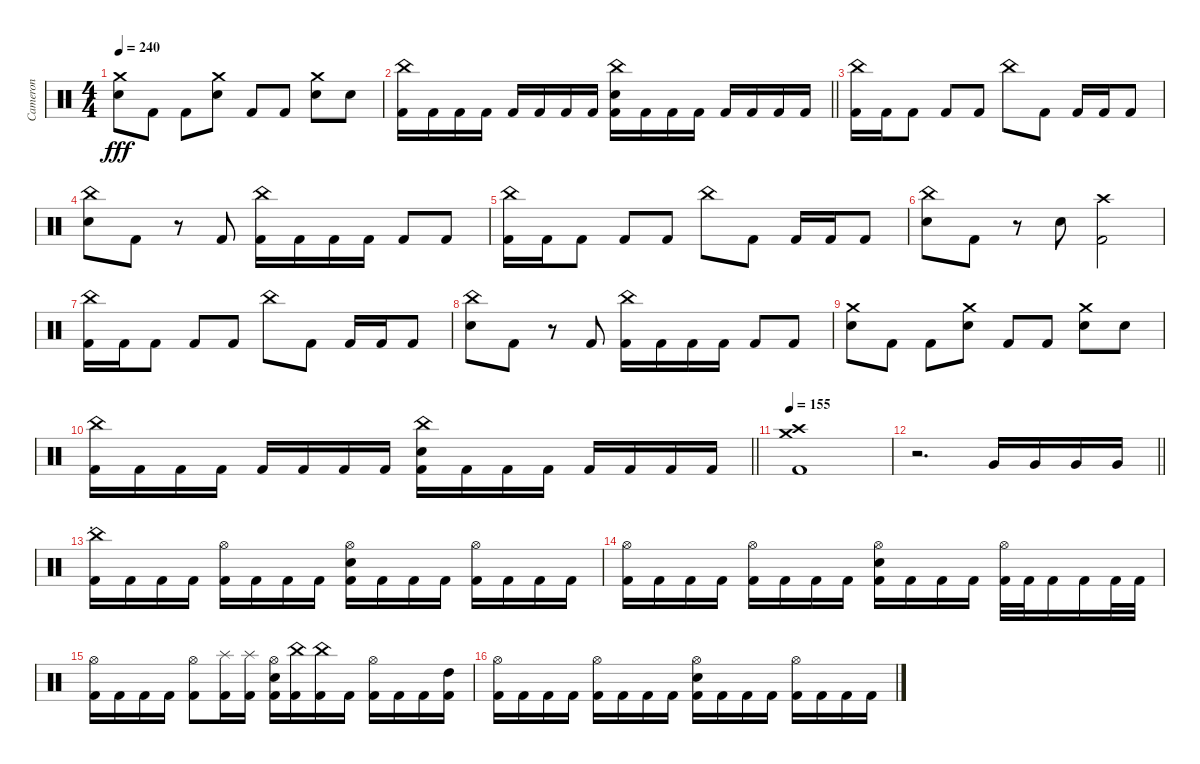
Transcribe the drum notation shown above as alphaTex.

\track ("Cameron" "Cameron") {instrument percussion}
\staff {score}
\articulation defaults
\ts (4 4)
\tempo 240
\clef neutral
\ks c
("Crash medium (hit)" "Electric Snare (hit)").8{dy fff} "Kick (hit) 2".8 "Kick (hit) 2".8 ("Crash medium (hit)" "Electric Snare (hit)").8 "Kick (hit) 2".8 "Kick (hit) 2".8 ("Crash medium (hit)" "Electric Snare (hit)").8 "Electric Snare (hit)".8 |
\barLineRight lightlight
("China (hit)" "Kick (hit) 2").16 "Kick (hit) 2".16 "Kick (hit) 2".16 "Kick (hit) 2".16 "Kick (hit) 2".16 "Kick (hit) 2".16 "Kick (hit) 2".16 "Kick (hit) 2".16 ("China (hit)" "Electric Snare (hit)" "Kick (hit) 2").16 "Kick (hit) 2".16 "Kick (hit) 2".16 "Kick (hit) 2".16 "Kick (hit) 2".16 "Kick (hit) 2".16 "Kick (hit) 2".16 "Kick (hit) 2".16 |
("China (hit)" "Kick (hit) 2").16 "Kick (hit) 2".16 "Kick (hit) 2".8 "Kick (hit) 2".8 "Kick (hit) 2".8 "China (hit)".8 "Kick (hit) 2".8 "Kick (hit) 2".16 "Kick (hit) 2".16 "Kick (hit) 2".8 |
("China (hit)" "Electric Snare (hit)").8 "Kick (hit) 2".8 r.8 "Kick (hit) 2".8 ("China (hit)" "Kick (hit) 2").16 "Kick (hit) 2".16 "Kick (hit) 2".16 "Kick (hit) 2".16 "Kick (hit) 2".8 "Kick (hit) 2".8 |
("China (hit)" "Kick (hit) 2").16 "Kick (hit) 2".16 "Kick (hit) 2".8 "Kick (hit) 2".8 "Kick (hit) 2".8 "China (hit)".8 "Kick (hit) 2".8 "Kick (hit) 2".16 "Kick (hit) 2".16 "Kick (hit) 2".8 |
("China (hit)" "Electric Snare (hit)").8 "Kick (hit) 2".8 r.8 "Electric Snare (hit)".8 ("Crash high (hit)" "Kick (hit) 2").2 |
("China (hit)" "Kick (hit) 2").16 "Kick (hit) 2".16 "Kick (hit) 2".8 "Kick (hit) 2".8 "Kick (hit) 2".8 "China (hit)".8 "Kick (hit) 2".8 "Kick (hit) 2".16 "Kick (hit) 2".16 "Kick (hit) 2".8 |
("China (hit)" "Electric Snare (hit)").8 "Kick (hit) 2".8 r.8 "Kick (hit) 2".8 ("China (hit)" "Kick (hit) 2").16 "Kick (hit) 2".16 "Kick (hit) 2".16 "Kick (hit) 2".16 "Kick (hit) 2".8 "Kick (hit) 2".8 |
("Crash medium (hit)" "Electric Snare (hit)").8 "Kick (hit) 2".8 "Kick (hit) 2".8 ("Crash medium (hit)" "Electric Snare (hit)").8 "Kick (hit) 2".8 "Kick (hit) 2".8 ("Crash medium (hit)" "Electric Snare (hit)").8 "Electric Snare (hit)".8 |
\barLineRight lightlight
("China (hit)" "Kick (hit) 2").16 "Kick (hit) 2".16 "Kick (hit) 2".16 "Kick (hit) 2".16 "Kick (hit) 2".16 "Kick (hit) 2".16 "Kick (hit) 2".16 "Kick (hit) 2".16 ("China (hit)" "Electric Snare (hit)" "Kick (hit) 2").16 "Kick (hit) 2".16 "Kick (hit) 2".16 "Kick (hit) 2".16 "Kick (hit) 2".16 "Kick (hit) 2".16 "Kick (hit) 2".16 "Kick (hit) 2".16 |
\tempo 155
("Crash high (hit)" "Crash medium (hit)" "Kick (hit) 2").1 |
\barLineRight lightlight
r.2{d} "Very Low Tom (hit)".16 "Very Low Tom (hit)".16 "Very Low Tom (hit)".16 "Very Low Tom (hit)".16 |
\section ("" ".")
("China (hit)" "Kick (hit) 2").16 "Kick (hit) 2".16 "Kick (hit) 2".16 "Kick (hit) 2".16 ("Hi-Hat (open)" "Kick (hit) 2").16 "Kick (hit) 2".16 "Kick (hit) 2".16 "Kick (hit) 2".16 ("Hi-Hat (open)" "Electric Snare (hit)" "Kick (hit) 2").16 "Kick (hit) 2".16 "Kick (hit) 2".16 "Kick (hit) 2".16 ("Hi-Hat (open)" "Kick (hit) 2").16 "Kick (hit) 2".16 "Kick (hit) 2".16 "Kick (hit) 2".16 |
("Hi-Hat (open)" "Kick (hit) 2").16 "Kick (hit) 2".16 "Kick (hit) 2".16 "Kick (hit) 2".16 ("Hi-Hat (open)" "Kick (hit) 2").16 "Kick (hit) 2".16 "Kick (hit) 2".16 "Kick (hit) 2".16 ("Hi-Hat (open)" "Electric Snare (hit)" "Kick (hit) 2").16 "Kick (hit) 2".16 "Kick (hit) 2".16 "Kick (hit) 2".16 ("Hi-Hat (open)" "Kick (hit) 2").32 "Kick (hit) 2".32 "Kick (hit) 2".16 "Kick (hit) 2".16 "Kick (hit) 2".32 "Kick (hit) 2".32 |
("Hi-Hat (open)" "Kick (hit) 2").16 "Kick (hit) 2".16 "Kick (hit) 2".16 "Kick (hit) 2".16 ("Hi-Hat (open)" "Kick (hit) 2").8 ("Splash (hit)" "Kick (hit) 2").16 ("Splash (hit)" "Kick (hit) 2").16 ("Hi-Hat (open)" "Electric Snare (hit)" "Kick (hit) 2").16 ("China (hit)" "Kick (hit) 2").16 ("China (hit)" "Kick (hit) 2").16 "Kick (hit) 2".16 ("Hi-Hat (open)" "Kick (hit) 2").16 "Kick (hit) 2".16 "Kick (hit) 2".16 ("High Tom (hit)" "Kick (hit) 2").16 |
("Hi-Hat (open)" "Kick (hit) 2").16 "Kick (hit) 2".16 "Kick (hit) 2".16 "Kick (hit) 2".16 ("Hi-Hat (open)" "Kick (hit) 2").16 "Kick (hit) 2".16 "Kick (hit) 2".16 "Kick (hit) 2".16 ("Hi-Hat (open)" "Electric Snare (hit)" "Kick (hit) 2").16 "Kick (hit) 2".16 "Kick (hit) 2".16 "Kick (hit) 2".16 ("Hi-Hat (open)" "Kick (hit) 2").16 "Kick (hit) 2".16 "Kick (hit) 2".16 "Kick (hit) 2".16
